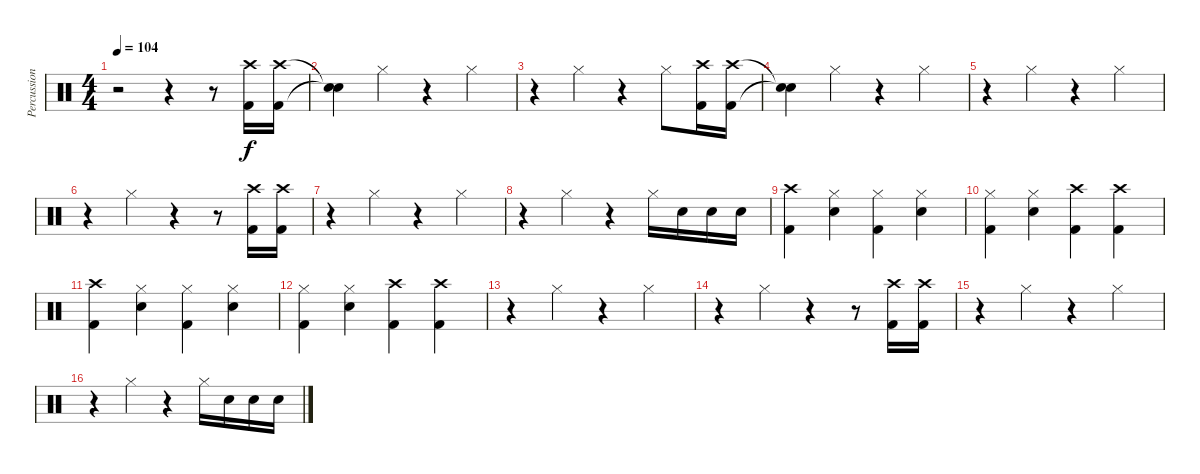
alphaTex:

\track ("Percussion" "Percussion") {instrument percussion}
\staff {score}
\articulation defaults
\ts (4 4)
\tempo 104
\clef neutral
\ks c
r.2{dy f} r.4 r.8 ("Crash high (hit)" "Kick (hit) 2").16 ("Crash high (hit)" "Kick (hit) 2").16 |
("Snare (hit)"{t} "Snare (hit)"{t}).4 "Hi-Hat (closed)".4 r.4 "Hi-Hat (closed)".4 |
r.4 "Hi-Hat (closed)".4 r.4 "Hi-Hat (closed)".8 ("Crash high (hit)" "Kick (hit) 2").16 ("Crash high (hit)" "Kick (hit) 2").16 |
("Snare (hit)"{t} "Snare (hit)"{t}).4 "Hi-Hat (closed)".4 r.4 "Hi-Hat (closed)".4 |
r.4 "Hi-Hat (closed)".4 r.4 "Hi-Hat (closed)".4 |
r.4 "Hi-Hat (closed)".4 r.4 r.8 ("Crash high (hit)" "Kick (hit) 2").16 ("Crash high (hit)" "Kick (hit) 2").16 |
r.4 "Hi-Hat (closed)".4 r.4 "Hi-Hat (closed)".4 |
r.4 "Hi-Hat (closed)".4 r.4 "Hi-Hat (closed)".16 "Snare (hit) 2".16 "Snare (hit) 2".16 "Snare (hit) 2".16 |
("Crash high (hit)" "Kick (hit) 2").4 ("Hi-Hat (closed)" "Snare (hit) 2").4 ("Hi-Hat (closed)" "Kick (hit) 2").4 ("Hi-Hat (closed)" "Snare (hit) 2").4 |
("Hi-Hat (closed)" "Kick (hit) 2").4 ("Hi-Hat (closed)" "Snare (hit) 2").4 ("Crash high (hit)" "Kick (hit) 2").4 ("Crash high (hit)" "Kick (hit) 2").4 |
("Crash high (hit)" "Kick (hit) 2").4 ("Hi-Hat (closed)" "Snare (hit) 2").4 ("Hi-Hat (closed)" "Kick (hit) 2").4 ("Hi-Hat (closed)" "Snare (hit) 2").4 |
("Hi-Hat (closed)" "Kick (hit) 2").4 ("Hi-Hat (closed)" "Snare (hit) 2").4 ("Crash high (hit)" "Kick (hit) 2").4 ("Crash high (hit)" "Kick (hit) 2").4 |
r.4 "Hi-Hat (closed)".4 r.4 "Hi-Hat (closed)".4 |
r.4 "Hi-Hat (closed)".4 r.4 r.8 ("Crash high (hit)" "Kick (hit) 2").16 ("Crash high (hit)" "Kick (hit) 2").16 |
r.4 "Hi-Hat (closed)".4 r.4 "Hi-Hat (closed)".4 |
r.4 "Hi-Hat (closed)".4 r.4 "Hi-Hat (closed)".16 "Snare (hit) 2".16 "Snare (hit) 2".16 "Snare (hit) 2".16
